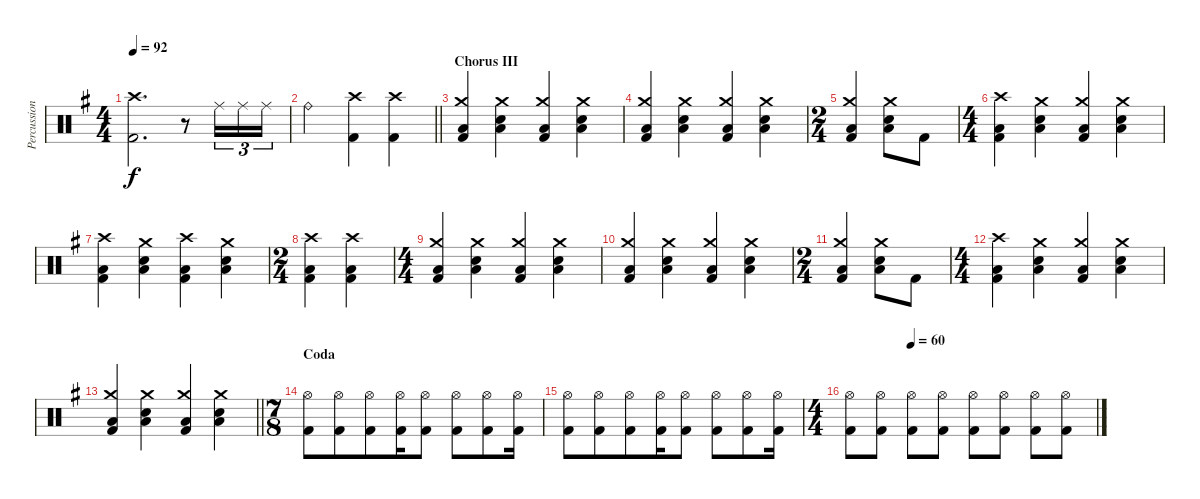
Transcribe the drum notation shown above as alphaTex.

\track ("Percussion" "Percussion") {instrument percussion}
\staff {score}
\articulation defaults
\ts (4 4)
\tempo 92
\clef neutral
\ks eminor
("Crash high (hit)" "Kick (hit) 2").2{d dy f} r.8 "Ride (middle)".16{tu (3 2)} "Ride (middle)".16{tu (3 2)} "Ride (middle)".16{tu (3 2)} |
\barLineRight lightlight "Ride (bell)".2
("Crash high (hit)" "Kick (hit) 2").4 ("Crash high (hit)" "Kick (hit) 2").4 |
\section ("" "Chorus III")
("Crash medium (hit)" "Low Floor Tom (hit)" "Kick (hit) 2").4 ("Crash medium (hit)" "Electric Snare (hit)" "Low Floor Tom (hit)").4 ("Crash medium (hit)" "Low Floor Tom (hit)" "Kick (hit) 2").4 ("Crash medium (hit)" "Electric Snare (hit)" "Low Floor Tom (hit)").4 |
("Crash medium (hit)" "Low Floor Tom (hit)" "Kick (hit) 2").4 ("Crash medium (hit)" "Electric Snare (hit)" "Low Floor Tom (hit)").4 ("Crash medium (hit)" "Low Floor Tom (hit)" "Kick (hit) 2").4 ("Crash medium (hit)" "Electric Snare (hit)" "Low Floor Tom (hit)").4 |
\ts (2 4)
("Crash medium (hit)" "Low Floor Tom (hit)" "Kick (hit) 2").4 ("Crash medium (hit)" "Electric Snare (hit)" "Low Floor Tom (hit)").8 "Kick (hit) 2".8 |
\ts (4 4)
("Crash high (hit)" "Low Floor Tom (hit)" "Kick (hit) 2").4 ("Crash medium (hit)" "Electric Snare (hit)" "Low Floor Tom (hit)").4 ("Crash medium (hit)" "Low Floor Tom (hit)" "Kick (hit) 2").4 ("Crash medium (hit)" "Electric Snare (hit)" "Low Floor Tom (hit)").4 |
("Crash high (hit)" "Low Floor Tom (hit)" "Kick (hit) 2").4 ("Crash medium (hit)" "Electric Snare (hit)" "Low Floor Tom (hit)").4 ("Crash high (hit)" "Low Floor Tom (hit)" "Kick (hit) 2").4 ("Crash medium (hit)" "Electric Snare (hit)" "Low Floor Tom (hit)").4 |
\ts (2 4)
("Crash high (hit)" "Low Floor Tom (hit)" "Kick (hit) 2").4 ("Crash high (hit)" "Low Floor Tom (hit)" "Kick (hit) 2").4 |
\ts (4 4)
("Crash medium (hit)" "Low Floor Tom (hit)" "Kick (hit) 2").4 ("Crash medium (hit)" "Electric Snare (hit)" "Low Floor Tom (hit)").4 ("Crash medium (hit)" "Low Floor Tom (hit)" "Kick (hit) 2").4 ("Crash medium (hit)" "Electric Snare (hit)" "Low Floor Tom (hit)").4 |
("Crash medium (hit)" "Low Floor Tom (hit)" "Kick (hit) 2").4 ("Crash medium (hit)" "Electric Snare (hit)" "Low Floor Tom (hit)").4 ("Crash medium (hit)" "Low Floor Tom (hit)" "Kick (hit) 2").4 ("Crash medium (hit)" "Electric Snare (hit)" "Low Floor Tom (hit)").4 |
\ts (2 4)
("Crash medium (hit)" "Low Floor Tom (hit)" "Kick (hit) 2").4 ("Crash medium (hit)" "Electric Snare (hit)" "Low Floor Tom (hit)").8 "Kick (hit) 2".8 |
\ts (4 4)
("Crash high (hit)" "Low Floor Tom (hit)" "Kick (hit) 2").4 ("Crash medium (hit)" "Electric Snare (hit)" "Low Floor Tom (hit)").4 ("Crash medium (hit)" "Low Floor Tom (hit)" "Kick (hit) 2").4 ("Crash medium (hit)" "Electric Snare (hit)" "Low Floor Tom (hit)").4 |
\barLineRight lightlight
("Crash medium (hit)" "Low Floor Tom (hit)" "Kick (hit) 2").4 ("Crash medium (hit)" "Electric Snare (hit)" "Low Floor Tom (hit)").4 ("Crash medium (hit)" "Low Floor Tom (hit)" "Kick (hit) 2").4 ("Crash medium (hit)" "Electric Snare (hit)" "Low Floor Tom (hit)").4 |
\ts (7 8)
\section ("" "Coda")
("Hi-Hat (open)" "Kick (hit) 2").8 ("Hi-Hat (open)" "Kick (hit) 2").8 ("Hi-Hat (open)" "Kick (hit) 2").8 ("Hi-Hat (open)" "Kick (hit) 2").16 ("Hi-Hat (open)" "Kick (hit) 2").8 ("Hi-Hat (open)" "Kick (hit) 2").8 ("Hi-Hat (open)" "Kick (hit) 2").8 ("Hi-Hat (open)" "Kick (hit) 2").16 |
("Hi-Hat (open)" "Kick (hit) 2").8 ("Hi-Hat (open)" "Kick (hit) 2").8 ("Hi-Hat (open)" "Kick (hit) 2").8 ("Hi-Hat (open)" "Kick (hit) 2").16 ("Hi-Hat (open)" "Kick (hit) 2").8 ("Hi-Hat (open)" "Kick (hit) 2").8 ("Hi-Hat (open)" "Kick (hit) 2").8 ("Hi-Hat (open)" "Kick (hit) 2").16 |
\ts (4 4)
\tempo (60 0.25)
("Hi-Hat (open)" "Kick (hit) 2").8 ("Hi-Hat (open)" "Kick (hit) 2").8 ("Hi-Hat (open)" "Kick (hit) 2").8 ("Hi-Hat (open)" "Kick (hit) 2").8 ("Hi-Hat (open)" "Kick (hit) 2").8 ("Hi-Hat (open)" "Kick (hit) 2").8 ("Hi-Hat (open)" "Kick (hit) 2").8 ("Hi-Hat (open)" "Kick (hit) 2").8
